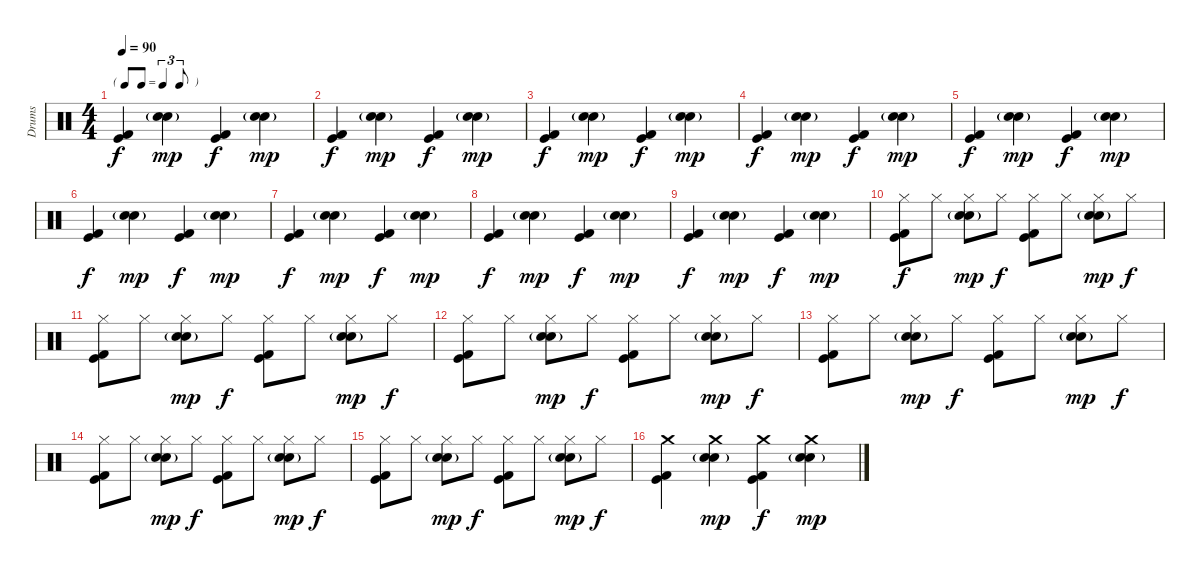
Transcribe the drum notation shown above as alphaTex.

\track ("Drums" "Drums") {instrument percussion}
\staff {score}
\articulation defaults
\ts (4 4)
\tf triplet8th
\tempo 90
\clef neutral
\ks c
("Kick (hit)" "Kick (hit) 2").4{dy f} ("Snare (hit) 2" "Hand Clap (hit)"{g}).4{dy mp} ("Kick (hit)" "Kick (hit) 2").4{dy f} ("Snare (hit) 2" "Hand Clap (hit)"{g}).4{dy mp} |
("Kick (hit)" "Kick (hit) 2").4{dy f} ("Snare (hit) 2" "Hand Clap (hit)"{g}).4{dy mp} ("Kick (hit)" "Kick (hit) 2").4{dy f} ("Snare (hit) 2" "Hand Clap (hit)"{g}).4{dy mp} |
("Kick (hit)" "Kick (hit) 2").4{dy f} ("Snare (hit) 2" "Hand Clap (hit)"{g}).4{dy mp} ("Kick (hit)" "Kick (hit) 2").4{dy f} ("Snare (hit) 2" "Hand Clap (hit)"{g}).4{dy mp} |
("Kick (hit)" "Kick (hit) 2").4{dy f} ("Snare (hit) 2" "Hand Clap (hit)"{g}).4{dy mp} ("Kick (hit)" "Kick (hit) 2").4{dy f} ("Snare (hit) 2" "Hand Clap (hit)"{g}).4{dy mp} |
("Kick (hit)" "Kick (hit) 2").4{dy f} ("Snare (hit) 2" "Hand Clap (hit)"{g}).4{dy mp} ("Kick (hit)" "Kick (hit) 2").4{dy f} ("Snare (hit) 2" "Hand Clap (hit)"{g}).4{dy mp} |
("Kick (hit)" "Kick (hit) 2").4{dy f} ("Snare (hit) 2" "Hand Clap (hit)"{g}).4{dy mp} ("Kick (hit)" "Kick (hit) 2").4{dy f} ("Snare (hit) 2" "Hand Clap (hit)"{g}).4{dy mp} |
("Kick (hit)" "Kick (hit) 2").4{dy f} ("Snare (hit) 2" "Hand Clap (hit)"{g}).4{dy mp} ("Kick (hit)" "Kick (hit) 2").4{dy f} ("Snare (hit) 2" "Hand Clap (hit)"{g}).4{dy mp} |
("Kick (hit)" "Kick (hit) 2").4{dy f} ("Snare (hit) 2" "Hand Clap (hit)"{g}).4{dy mp} ("Kick (hit)" "Kick (hit) 2").4{dy f} ("Snare (hit) 2" "Hand Clap (hit)"{g}).4{dy mp} |
("Kick (hit)" "Kick (hit) 2").4{dy f} ("Snare (hit) 2" "Hand Clap (hit)"{g}).4{dy mp} ("Kick (hit)" "Kick (hit) 2").4{dy f} ("Snare (hit) 2" "Hand Clap (hit)"{g}).4{dy mp} |
("Hi-Hat (closed)" "Kick (hit)" "Kick (hit) 2").8{dy f} "Hi-Hat (closed)".8 ("Hi-Hat (closed)" "Snare (hit) 2" "Hand Clap (hit)"{g}).8{dy mp} "Hi-Hat (closed)".8{dy f} ("Hi-Hat (closed)" "Kick (hit)" "Kick (hit) 2").8 "Hi-Hat (closed)".8 ("Hi-Hat (closed)" "Snare (hit) 2" "Hand Clap (hit)"{g}).8{dy mp} "Hi-Hat (closed)".8{dy f} |
("Hi-Hat (closed)" "Kick (hit)" "Kick (hit) 2").8 "Hi-Hat (closed)".8 ("Hi-Hat (closed)" "Snare (hit) 2" "Hand Clap (hit)"{g}).8{dy mp} "Hi-Hat (closed)".8{dy f} ("Hi-Hat (closed)" "Kick (hit)" "Kick (hit) 2").8 "Hi-Hat (closed)".8 ("Hi-Hat (closed)" "Snare (hit) 2" "Hand Clap (hit)"{g}).8{dy mp} "Hi-Hat (closed)".8{dy f} |
("Hi-Hat (closed)" "Kick (hit)" "Kick (hit) 2").8 "Hi-Hat (closed)".8 ("Hi-Hat (closed)" "Snare (hit) 2" "Hand Clap (hit)"{g}).8{dy mp} "Hi-Hat (closed)".8{dy f} ("Hi-Hat (closed)" "Kick (hit)" "Kick (hit) 2").8 "Hi-Hat (closed)".8 ("Hi-Hat (closed)" "Snare (hit) 2" "Hand Clap (hit)"{g}).8{dy mp} "Hi-Hat (closed)".8{dy f} |
("Hi-Hat (closed)" "Kick (hit)" "Kick (hit) 2").8 "Hi-Hat (closed)".8 ("Hi-Hat (closed)" "Snare (hit) 2" "Hand Clap (hit)"{g}).8{dy mp} "Hi-Hat (closed)".8{dy f} ("Hi-Hat (closed)" "Kick (hit)" "Kick (hit) 2").8 "Hi-Hat (closed)".8 ("Hi-Hat (closed)" "Snare (hit) 2" "Hand Clap (hit)"{g}).8{dy mp} "Hi-Hat (closed)".8{dy f} |
("Hi-Hat (closed)" "Kick (hit)" "Kick (hit) 2").8 "Hi-Hat (closed)".8 ("Hi-Hat (closed)" "Snare (hit) 2" "Hand Clap (hit)"{g}).8{dy mp} "Hi-Hat (closed)".8{dy f} ("Hi-Hat (closed)" "Kick (hit)" "Kick (hit) 2").8 "Hi-Hat (closed)".8 ("Hi-Hat (closed)" "Snare (hit) 2" "Hand Clap (hit)"{g}).8{dy mp} "Hi-Hat (closed)".8{dy f} |
("Hi-Hat (closed)" "Kick (hit)" "Kick (hit) 2").8 "Hi-Hat (closed)".8 ("Hi-Hat (closed)" "Snare (hit) 2" "Hand Clap (hit)"{g}).8{dy mp} "Hi-Hat (closed)".8{dy f} ("Hi-Hat (closed)" "Kick (hit)" "Kick (hit) 2").8 "Hi-Hat (closed)".8 ("Hi-Hat (closed)" "Snare (hit) 2" "Hand Clap (hit)"{g}).8{dy mp} "Hi-Hat (closed)".8{dy f} |
("Crash medium (hit)" "Kick (hit)" "Kick (hit) 2").4 ("Crash medium (hit)" "Snare (hit) 2" "Hand Clap (hit)"{g}).4{dy mp} ("Crash medium (hit)" "Kick (hit)" "Kick (hit) 2").4{dy f} ("Crash medium (hit)" "Snare (hit) 2" "Hand Clap (hit)"{g}).4{dy mp}
